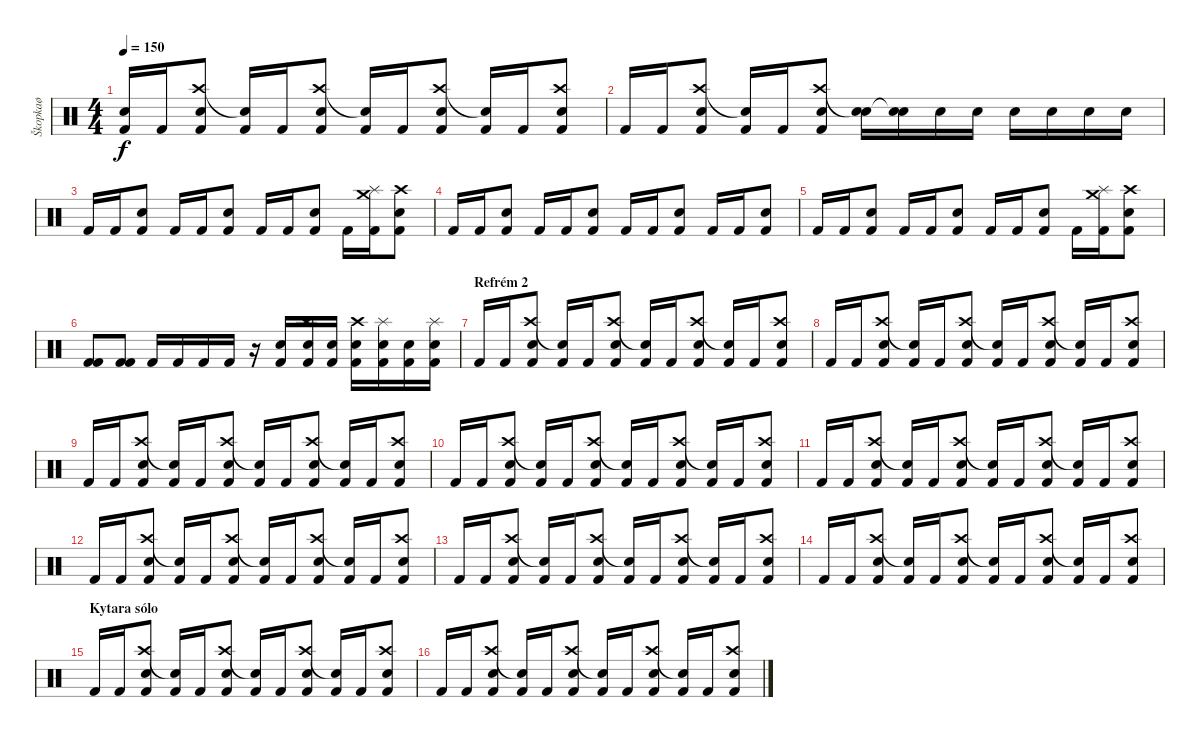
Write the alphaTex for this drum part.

\track ("Škopkaø" "Škopkaø") {instrument percussion}
\staff {score}
\articulation defaults
\ts (4 4)
\tempo 150
\clef neutral
\ks c
("Snare (hit)"{t} "Kick (hit) 2").16{dy f} "Kick (hit) 2".16 ("Crash high (hit)" "Electric Snare (hit)" "Kick (hit) 2").8 ("Snare (hit)"{t} "Kick (hit) 2").16 "Kick (hit) 2".16 ("Crash high (hit)" "Electric Snare (hit)" "Kick (hit) 2").8 ("Snare (hit)"{t} "Kick (hit) 2").16 "Kick (hit) 2".16 ("Crash high (hit)" "Electric Snare (hit)" "Kick (hit) 2").8 ("Snare (hit)"{t} "Kick (hit) 2").16 "Kick (hit) 2".16 ("Crash high (hit)" "Electric Snare (hit)" "Kick (hit) 2").8 |
"Kick (hit) 2".16 "Kick (hit) 2".16 ("Crash high (hit)" "Electric Snare (hit)" "Kick (hit) 2").8 ("Snare (hit)"{t} "Kick (hit) 2").16 "Kick (hit) 2".16 ("Crash high (hit)" "Electric Snare (hit)" "Kick (hit) 2").8 ("Snare (hit)"{t} "Electric Snare (hit)").16 ("Snare (hit)"{t} "Electric Snare (hit)").16 "Electric Snare (hit)".16 "Electric Snare (hit)".16 "Electric Snare (hit)".16 "Electric Snare (hit)".16 "Electric Snare (hit)".16 "Electric Snare (hit)".16 |
"Kick (hit) 2".16 "Kick (hit) 2".16 ("Electric Snare (hit)" "Kick (hit) 2").8 "Kick (hit) 2".16 "Kick (hit) 2".16 ("Electric Snare (hit)" "Kick (hit) 2").8 "Kick (hit) 2".16 "Kick (hit) 2".16 ("Electric Snare (hit)" "Kick (hit) 2").8 "Kick (hit) 2".16 ("Crash medium (hit)" "Splash (hit)" "Kick (hit) 2").16 ("Crash high (hit)" "Electric Snare (hit)" "Kick (hit) 2").8 |
"Kick (hit) 2".16 "Kick (hit) 2".16 ("Electric Snare (hit)" "Kick (hit) 2").8 "Kick (hit) 2".16 "Kick (hit) 2".16 ("Electric Snare (hit)" "Kick (hit) 2").8 "Kick (hit) 2".16 "Kick (hit) 2".16 ("Electric Snare (hit)" "Kick (hit) 2").8 "Kick (hit) 2".16 "Kick (hit) 2".16 ("Electric Snare (hit)" "Kick (hit) 2").8 |
"Kick (hit) 2".16 "Kick (hit) 2".16 ("Electric Snare (hit)" "Kick (hit) 2").8 "Kick (hit) 2".16 "Kick (hit) 2".16 ("Electric Snare (hit)" "Kick (hit) 2").8 "Kick (hit) 2".16 "Kick (hit) 2".16 ("Electric Snare (hit)" "Kick (hit) 2").8 "Kick (hit) 2".16 ("Crash medium (hit)" "Splash (hit)" "Kick (hit) 2").16 ("Crash high (hit)" "Electric Snare (hit)" "Kick (hit) 2").8 |
("Kick (hit) 2" "Kick (hit) 2").8 ("Kick (hit) 2" "Kick (hit) 2").8 "Kick (hit) 2".16 "Kick (hit) 2".16 "Kick (hit) 2".16 "Kick (hit) 2".16 r.16 ("Electric Snare (hit)" "Kick (hit) 2").16 ("Crash high (hit)" "Electric Snare (hit)" "Kick (hit) 2").16 ("Electric Snare (hit)" "Kick (hit) 2").16 ("Crash high (hit)" "Electric Snare (hit)" "Kick (hit) 2").16 ("Splash (hit)" "Electric Snare (hit)" "Kick (hit) 2").16 ("Electric Snare (hit)" "Kick (hit) 2").16 ("Splash (hit)" "Electric Snare (hit)" "Kick (hit) 2").16 |
\section ("" "Refrém 2")
"Kick (hit) 2".16 "Kick (hit) 2".16 ("Crash high (hit)" "Electric Snare (hit)" "Kick (hit) 2").8 ("Snare (hit)"{t} "Kick (hit) 2").16 "Kick (hit) 2".16 ("Crash high (hit)" "Electric Snare (hit)" "Kick (hit) 2").8 ("Snare (hit)"{t} "Kick (hit) 2").16 "Kick (hit) 2".16 ("Crash high (hit)" "Electric Snare (hit)" "Kick (hit) 2").8 ("Snare (hit)"{t} "Kick (hit) 2").16 "Kick (hit) 2".16 ("Crash high (hit)" "Electric Snare (hit)" "Kick (hit) 2").8 |
"Kick (hit) 2".16 "Kick (hit) 2".16 ("Crash high (hit)" "Electric Snare (hit)" "Kick (hit) 2").8 ("Snare (hit)"{t} "Kick (hit) 2").16 "Kick (hit) 2".16 ("Crash high (hit)" "Electric Snare (hit)" "Kick (hit) 2").8 ("Snare (hit)"{t} "Kick (hit) 2").16 "Kick (hit) 2".16 ("Crash high (hit)" "Electric Snare (hit)" "Kick (hit) 2").8 ("Snare (hit)"{t} "Kick (hit) 2").16 "Kick (hit) 2".16 ("Crash high (hit)" "Electric Snare (hit)" "Kick (hit) 2").8 |
"Kick (hit) 2".16 "Kick (hit) 2".16 ("Crash high (hit)" "Electric Snare (hit)" "Kick (hit) 2").8 ("Snare (hit)"{t} "Kick (hit) 2").16 "Kick (hit) 2".16 ("Crash high (hit)" "Electric Snare (hit)" "Kick (hit) 2").8 ("Snare (hit)"{t} "Kick (hit) 2").16 "Kick (hit) 2".16 ("Crash high (hit)" "Electric Snare (hit)" "Kick (hit) 2").8 ("Snare (hit)"{t} "Kick (hit) 2").16 "Kick (hit) 2".16 ("Crash high (hit)" "Electric Snare (hit)" "Kick (hit) 2").8 |
"Kick (hit) 2".16 "Kick (hit) 2".16 ("Crash high (hit)" "Electric Snare (hit)" "Kick (hit) 2").8 ("Snare (hit)"{t} "Kick (hit) 2").16 "Kick (hit) 2".16 ("Crash high (hit)" "Electric Snare (hit)" "Kick (hit) 2").8 ("Snare (hit)"{t} "Kick (hit) 2").16 "Kick (hit) 2".16 ("Crash high (hit)" "Electric Snare (hit)" "Kick (hit) 2").8 ("Snare (hit)"{t} "Kick (hit) 2").16 "Kick (hit) 2".16 ("Crash high (hit)" "Electric Snare (hit)" "Kick (hit) 2").8 |
"Kick (hit) 2".16 "Kick (hit) 2".16 ("Crash high (hit)" "Electric Snare (hit)" "Kick (hit) 2").8 ("Snare (hit)"{t} "Kick (hit) 2").16 "Kick (hit) 2".16 ("Crash high (hit)" "Electric Snare (hit)" "Kick (hit) 2").8 ("Snare (hit)"{t} "Kick (hit) 2").16 "Kick (hit) 2".16 ("Crash high (hit)" "Electric Snare (hit)" "Kick (hit) 2").8 ("Snare (hit)"{t} "Kick (hit) 2").16 "Kick (hit) 2".16 ("Crash high (hit)" "Electric Snare (hit)" "Kick (hit) 2").8 |
"Kick (hit) 2".16 "Kick (hit) 2".16 ("Crash high (hit)" "Electric Snare (hit)" "Kick (hit) 2").8 ("Snare (hit)"{t} "Kick (hit) 2").16 "Kick (hit) 2".16 ("Crash high (hit)" "Electric Snare (hit)" "Kick (hit) 2").8 ("Snare (hit)"{t} "Kick (hit) 2").16 "Kick (hit) 2".16 ("Crash high (hit)" "Electric Snare (hit)" "Kick (hit) 2").8 ("Snare (hit)"{t} "Kick (hit) 2").16 "Kick (hit) 2".16 ("Crash high (hit)" "Electric Snare (hit)" "Kick (hit) 2").8 |
"Kick (hit) 2".16 "Kick (hit) 2".16 ("Crash high (hit)" "Electric Snare (hit)" "Kick (hit) 2").8 ("Snare (hit)"{t} "Kick (hit) 2").16 "Kick (hit) 2".16 ("Crash high (hit)" "Electric Snare (hit)" "Kick (hit) 2").8 ("Snare (hit)"{t} "Kick (hit) 2").16 "Kick (hit) 2".16 ("Crash high (hit)" "Electric Snare (hit)" "Kick (hit) 2").8 ("Snare (hit)"{t} "Kick (hit) 2").16 "Kick (hit) 2".16 ("Crash high (hit)" "Electric Snare (hit)" "Kick (hit) 2").8 |
"Kick (hit) 2".16 "Kick (hit) 2".16 ("Crash high (hit)" "Electric Snare (hit)" "Kick (hit) 2").8 ("Snare (hit)"{t} "Kick (hit) 2").16 "Kick (hit) 2".16 ("Crash high (hit)" "Electric Snare (hit)" "Kick (hit) 2").8 ("Snare (hit)"{t} "Kick (hit) 2").16 "Kick (hit) 2".16 ("Crash high (hit)" "Electric Snare (hit)" "Kick (hit) 2").8 ("Snare (hit)"{t} "Kick (hit) 2").16 "Kick (hit) 2".16 ("Crash high (hit)" "Electric Snare (hit)" "Kick (hit) 2").8 |
\section ("" "Kytara sólo")
"Kick (hit) 2".16 "Kick (hit) 2".16 ("Crash high (hit)" "Electric Snare (hit)" "Kick (hit) 2").8 ("Snare (hit)"{t} "Kick (hit) 2").16 "Kick (hit) 2".16 ("Crash high (hit)" "Electric Snare (hit)" "Kick (hit) 2").8 ("Snare (hit)"{t} "Kick (hit) 2").16 "Kick (hit) 2".16 ("Crash high (hit)" "Electric Snare (hit)" "Kick (hit) 2").8 ("Snare (hit)"{t} "Kick (hit) 2").16 "Kick (hit) 2".16 ("Crash high (hit)" "Electric Snare (hit)" "Kick (hit) 2").8 |
"Kick (hit) 2".16 "Kick (hit) 2".16 ("Crash high (hit)" "Electric Snare (hit)" "Kick (hit) 2").8 ("Snare (hit)"{t} "Kick (hit) 2").16 "Kick (hit) 2".16 ("Crash high (hit)" "Electric Snare (hit)" "Kick (hit) 2").8 ("Snare (hit)"{t} "Kick (hit) 2").16 "Kick (hit) 2".16 ("Crash high (hit)" "Electric Snare (hit)" "Kick (hit) 2").8 ("Snare (hit)"{t} "Kick (hit) 2").16 "Kick (hit) 2".16 ("Crash high (hit)" "Electric Snare (hit)" "Kick (hit) 2").8
